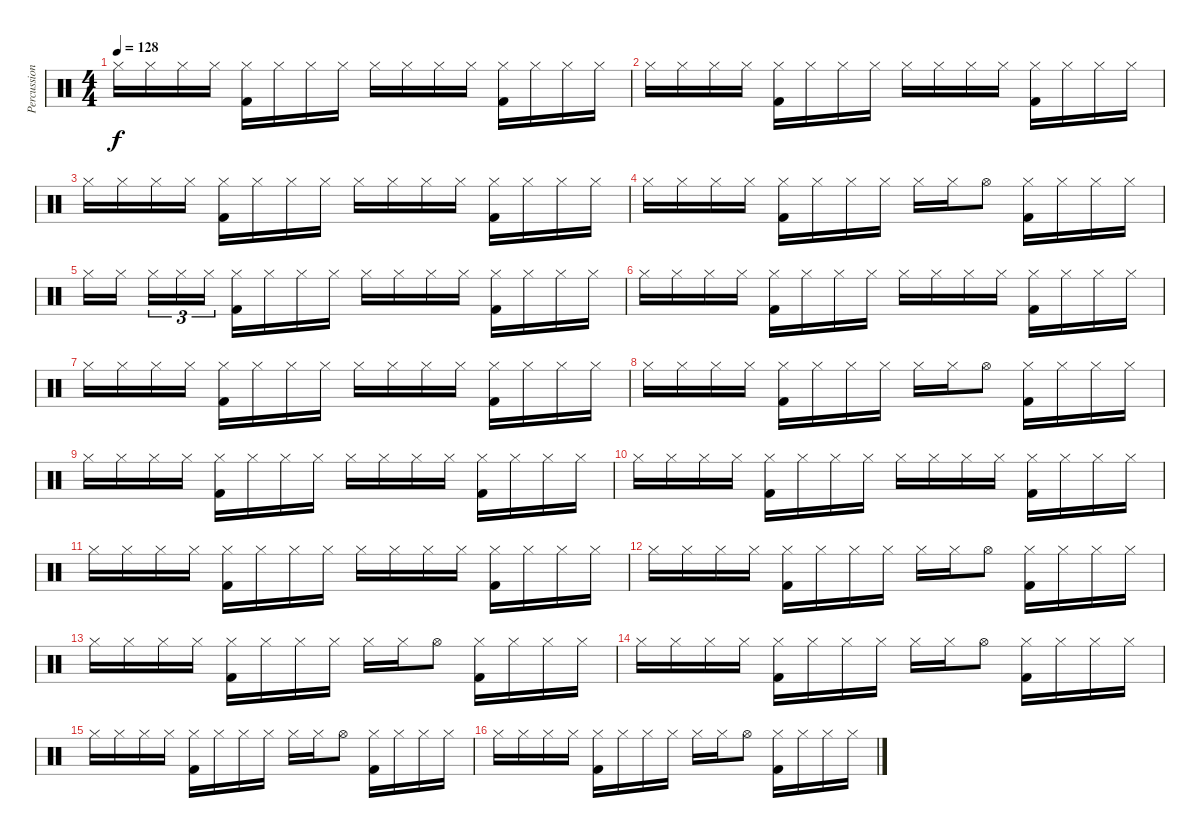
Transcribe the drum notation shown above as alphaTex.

\track ("Percussion" "Percussion") {instrument percussion}
\staff {score}
\articulation defaults
\ts (4 4)
\tempo 128
\clef neutral
\ks c "Hi-Hat (closed)".16{dy f} "Hi-Hat (closed)".16 "Hi-Hat (closed)".16 "Hi-Hat (closed)".16
("Kick (hit) 2" "Hi-Hat (closed)").16 "Hi-Hat (closed)".16 "Hi-Hat (closed)".16 "Hi-Hat (closed)".16 "Hi-Hat (closed)".16 "Hi-Hat (closed)".16 "Hi-Hat (closed)".16 "Hi-Hat (closed)".16 ("Kick (hit) 2" "Hi-Hat (closed)").16 "Hi-Hat (closed)".16 "Hi-Hat (closed)".16 "Hi-Hat (closed)".16 |
"Hi-Hat (closed)".16 "Hi-Hat (closed)".16 "Hi-Hat (closed)".16 "Hi-Hat (closed)".16 ("Kick (hit) 2" "Hi-Hat (closed)").16 "Hi-Hat (closed)".16 "Hi-Hat (closed)".16 "Hi-Hat (closed)".16 "Hi-Hat (closed)".16 "Hi-Hat (closed)".16 "Hi-Hat (closed)".16 "Hi-Hat (closed)".16 ("Kick (hit) 2" "Hi-Hat (closed)").16 "Hi-Hat (closed)".16 "Hi-Hat (closed)".16 "Hi-Hat (closed)".16 |
"Hi-Hat (closed)".16 "Hi-Hat (closed)".16 "Hi-Hat (closed)".16 "Hi-Hat (closed)".16 ("Kick (hit) 2" "Hi-Hat (closed)").16 "Hi-Hat (closed)".16 "Hi-Hat (closed)".16 "Hi-Hat (closed)".16 "Hi-Hat (closed)".16 "Hi-Hat (closed)".16 "Hi-Hat (closed)".16 "Hi-Hat (closed)".16 ("Kick (hit) 2" "Hi-Hat (closed)").16 "Hi-Hat (closed)".16 "Hi-Hat (closed)".16 "Hi-Hat (closed)".16 |
"Hi-Hat (closed)".16 "Hi-Hat (closed)".16 "Hi-Hat (closed)".16 "Hi-Hat (closed)".16 ("Kick (hit) 2" "Hi-Hat (closed)").16 "Hi-Hat (closed)".16 "Hi-Hat (closed)".16 "Hi-Hat (closed)".16 "Hi-Hat (closed)".16 "Hi-Hat (closed)".16 "Hi-Hat (open)".8 ("Kick (hit) 2" "Hi-Hat (closed)").16 "Hi-Hat (closed)".16 "Hi-Hat (closed)".16 "Hi-Hat (closed)".16 |
"Hi-Hat (closed)".16 "Hi-Hat (closed)".16 "Hi-Hat (closed)".16{tu (3 2)} "Hi-Hat (closed)".16{tu (3 2)} "Hi-Hat (closed)".16{tu (3 2)} ("Kick (hit) 2" "Hi-Hat (closed)").16 "Hi-Hat (closed)".16 "Hi-Hat (closed)".16 "Hi-Hat (closed)".16 "Hi-Hat (closed)".16 "Hi-Hat (closed)".16 "Hi-Hat (closed)".16 "Hi-Hat (closed)".16 ("Kick (hit) 2" "Hi-Hat (closed)").16 "Hi-Hat (closed)".16 "Hi-Hat (closed)".16 "Hi-Hat (closed)".16 |
"Hi-Hat (closed)".16 "Hi-Hat (closed)".16 "Hi-Hat (closed)".16 "Hi-Hat (closed)".16 ("Kick (hit) 2" "Hi-Hat (closed)").16 "Hi-Hat (closed)".16 "Hi-Hat (closed)".16 "Hi-Hat (closed)".16 "Hi-Hat (closed)".16 "Hi-Hat (closed)".16 "Hi-Hat (closed)".16 "Hi-Hat (closed)".16 ("Kick (hit) 2" "Hi-Hat (closed)").16 "Hi-Hat (closed)".16 "Hi-Hat (closed)".16 "Hi-Hat (closed)".16 |
"Hi-Hat (closed)".16 "Hi-Hat (closed)".16 "Hi-Hat (closed)".16 "Hi-Hat (closed)".16 ("Kick (hit) 2" "Hi-Hat (closed)").16 "Hi-Hat (closed)".16 "Hi-Hat (closed)".16 "Hi-Hat (closed)".16 "Hi-Hat (closed)".16 "Hi-Hat (closed)".16 "Hi-Hat (closed)".16 "Hi-Hat (closed)".16 ("Kick (hit) 2" "Hi-Hat (closed)").16 "Hi-Hat (closed)".16 "Hi-Hat (closed)".16 "Hi-Hat (closed)".16 |
"Hi-Hat (closed)".16 "Hi-Hat (closed)".16 "Hi-Hat (closed)".16 "Hi-Hat (closed)".16 ("Kick (hit) 2" "Hi-Hat (closed)").16 "Hi-Hat (closed)".16 "Hi-Hat (closed)".16 "Hi-Hat (closed)".16 "Hi-Hat (closed)".16 "Hi-Hat (closed)".16 "Hi-Hat (open)".8 ("Kick (hit) 2" "Hi-Hat (closed)").16 "Hi-Hat (closed)".16 "Hi-Hat (closed)".16 "Hi-Hat (closed)".16 |
"Hi-Hat (closed)".16 "Hi-Hat (closed)".16 "Hi-Hat (closed)".16 "Hi-Hat (closed)".16 ("Kick (hit) 2" "Hi-Hat (closed)").16 "Hi-Hat (closed)".16 "Hi-Hat (closed)".16 "Hi-Hat (closed)".16 "Hi-Hat (closed)".16 "Hi-Hat (closed)".16 "Hi-Hat (closed)".16 "Hi-Hat (closed)".16 ("Kick (hit) 2" "Hi-Hat (closed)").16 "Hi-Hat (closed)".16 "Hi-Hat (closed)".16 "Hi-Hat (closed)".16 |
"Hi-Hat (closed)".16 "Hi-Hat (closed)".16 "Hi-Hat (closed)".16 "Hi-Hat (closed)".16 ("Kick (hit) 2" "Hi-Hat (closed)").16 "Hi-Hat (closed)".16 "Hi-Hat (closed)".16 "Hi-Hat (closed)".16 "Hi-Hat (closed)".16 "Hi-Hat (closed)".16 "Hi-Hat (closed)".16 "Hi-Hat (closed)".16 ("Kick (hit) 2" "Hi-Hat (closed)").16 "Hi-Hat (closed)".16 "Hi-Hat (closed)".16 "Hi-Hat (closed)".16 |
"Hi-Hat (closed)".16 "Hi-Hat (closed)".16 "Hi-Hat (closed)".16 "Hi-Hat (closed)".16 ("Kick (hit) 2" "Hi-Hat (closed)").16 "Hi-Hat (closed)".16 "Hi-Hat (closed)".16 "Hi-Hat (closed)".16 "Hi-Hat (closed)".16 "Hi-Hat (closed)".16 "Hi-Hat (closed)".16 "Hi-Hat (closed)".16 ("Kick (hit) 2" "Hi-Hat (closed)").16 "Hi-Hat (closed)".16 "Hi-Hat (closed)".16 "Hi-Hat (closed)".16 |
"Hi-Hat (closed)".16 "Hi-Hat (closed)".16 "Hi-Hat (closed)".16 "Hi-Hat (closed)".16 ("Kick (hit) 2" "Hi-Hat (closed)").16 "Hi-Hat (closed)".16 "Hi-Hat (closed)".16 "Hi-Hat (closed)".16 "Hi-Hat (closed)".16 "Hi-Hat (closed)".16 "Hi-Hat (open)".8 ("Kick (hit) 2" "Hi-Hat (closed)").16 "Hi-Hat (closed)".16 "Hi-Hat (closed)".16 "Hi-Hat (closed)".16 |
"Hi-Hat (closed)".16 "Hi-Hat (closed)".16 "Hi-Hat (closed)".16 "Hi-Hat (closed)".16 ("Kick (hit) 2" "Hi-Hat (closed)").16 "Hi-Hat (closed)".16 "Hi-Hat (closed)".16 "Hi-Hat (closed)".16 "Hi-Hat (closed)".16 "Hi-Hat (closed)".16 "Hi-Hat (open)".8 ("Kick (hit) 2" "Hi-Hat (closed)").16 "Hi-Hat (closed)".16 "Hi-Hat (closed)".16 "Hi-Hat (closed)".16 |
"Hi-Hat (closed)".16 "Hi-Hat (closed)".16 "Hi-Hat (closed)".16 "Hi-Hat (closed)".16 ("Kick (hit) 2" "Hi-Hat (closed)").16 "Hi-Hat (closed)".16 "Hi-Hat (closed)".16 "Hi-Hat (closed)".16 "Hi-Hat (closed)".16 "Hi-Hat (closed)".16 "Hi-Hat (open)".8 ("Kick (hit) 2" "Hi-Hat (closed)").16 "Hi-Hat (closed)".16 "Hi-Hat (closed)".16 "Hi-Hat (closed)".16 |
"Hi-Hat (closed)".16 "Hi-Hat (closed)".16 "Hi-Hat (closed)".16 "Hi-Hat (closed)".16 ("Kick (hit) 2" "Hi-Hat (closed)").16 "Hi-Hat (closed)".16 "Hi-Hat (closed)".16 "Hi-Hat (closed)".16 "Hi-Hat (closed)".16 "Hi-Hat (closed)".16 "Hi-Hat (open)".8 ("Kick (hit) 2" "Hi-Hat (closed)").16 "Hi-Hat (closed)".16 "Hi-Hat (closed)".16 "Hi-Hat (closed)".16 |
"Hi-Hat (closed)".16 "Hi-Hat (closed)".16 "Hi-Hat (closed)".16 "Hi-Hat (closed)".16 ("Kick (hit) 2" "Hi-Hat (closed)").16 "Hi-Hat (closed)".16 "Hi-Hat (closed)".16 "Hi-Hat (closed)".16 "Hi-Hat (closed)".16 "Hi-Hat (closed)".16 "Hi-Hat (open)".8 ("Kick (hit) 2" "Hi-Hat (closed)").16 "Hi-Hat (closed)".16 "Hi-Hat (closed)".16 "Hi-Hat (closed)".16
